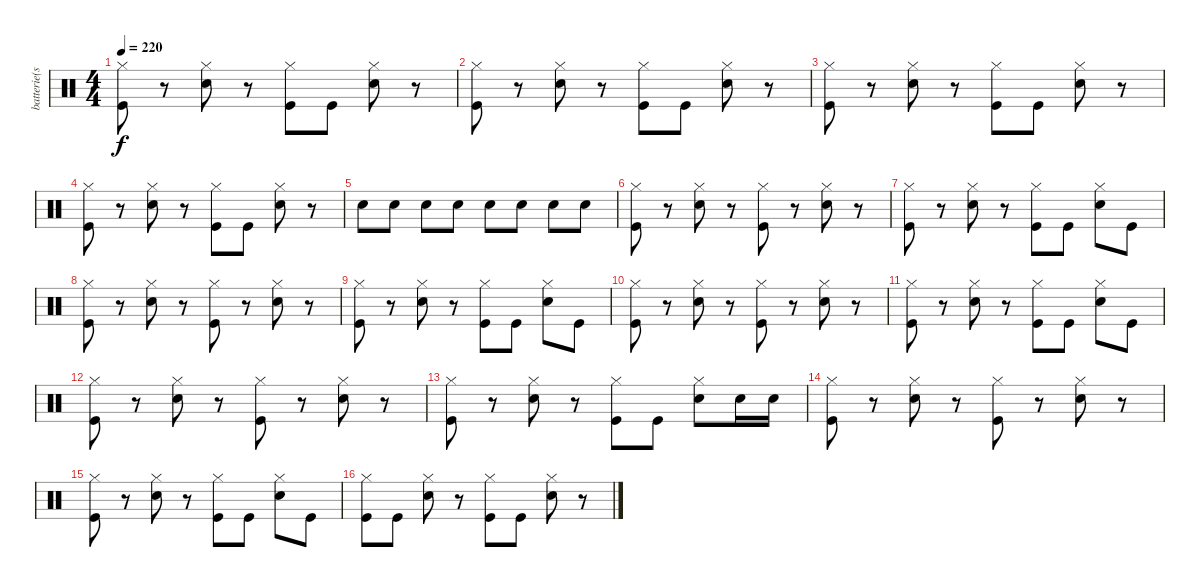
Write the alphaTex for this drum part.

\track ("batterie(scott)" "batterie(s") {instrument percussion}
\staff {score}
\articulation defaults
\ts (4 4)
\tempo 220
\clef neutral
\ks c
("Hi-Hat (closed)" "Kick (hit)").8{dy f} r.8 ("Hi-Hat (closed)" "Snare (hit) 2").8 r.8 ("Hi-Hat (closed)" "Kick (hit)").8 "Kick (hit)".8 ("Hi-Hat (closed)" "Snare (hit) 2").8 r.8 |
("Hi-Hat (closed)" "Kick (hit)").8 r.8 ("Hi-Hat (closed)" "Snare (hit) 2").8 r.8 ("Hi-Hat (closed)" "Kick (hit)").8 "Kick (hit)".8 ("Hi-Hat (closed)" "Snare (hit) 2").8 r.8 |
("Hi-Hat (closed)" "Kick (hit)").8 r.8 ("Hi-Hat (closed)" "Snare (hit) 2").8 r.8 ("Hi-Hat (closed)" "Kick (hit)").8 "Kick (hit)".8 ("Hi-Hat (closed)" "Snare (hit) 2").8 r.8 |
("Hi-Hat (closed)" "Kick (hit)").8 r.8 ("Hi-Hat (closed)" "Snare (hit) 2").8 r.8 ("Hi-Hat (closed)" "Kick (hit)").8 "Kick (hit)".8 ("Hi-Hat (closed)" "Snare (hit) 2").8 r.8 |
"Snare (hit) 2".8 "Snare (hit) 2".8 "Snare (hit) 2".8 "Snare (hit) 2".8 "Snare (hit) 2".8 "Snare (hit) 2".8 "Snare (hit) 2".8 "Snare (hit) 2".8 |
("Hi-Hat (closed)" "Kick (hit)").8 r.8 ("Hi-Hat (closed)" "Snare (hit) 2").8 r.8 ("Hi-Hat (closed)" "Kick (hit)").8 r.8 ("Hi-Hat (closed)" "Snare (hit) 2").8 r.8 |
("Hi-Hat (closed)" "Kick (hit)").8 r.8 ("Hi-Hat (closed)" "Snare (hit) 2").8 r.8 ("Hi-Hat (closed)" "Kick (hit)").8 "Kick (hit)".8 ("Hi-Hat (closed)" "Snare (hit) 2").8 "Kick (hit)".8 |
("Hi-Hat (closed)" "Kick (hit)").8 r.8 ("Hi-Hat (closed)" "Snare (hit) 2").8 r.8 ("Hi-Hat (closed)" "Kick (hit)").8 r.8 ("Hi-Hat (closed)" "Snare (hit) 2").8 r.8 |
("Hi-Hat (closed)" "Kick (hit)").8 r.8 ("Hi-Hat (closed)" "Snare (hit) 2").8 r.8 ("Hi-Hat (closed)" "Kick (hit)").8 "Kick (hit)".8 ("Hi-Hat (closed)" "Snare (hit) 2").8 "Kick (hit)".8 |
("Hi-Hat (closed)" "Kick (hit)").8 r.8 ("Hi-Hat (closed)" "Snare (hit) 2").8 r.8 ("Hi-Hat (closed)" "Kick (hit)").8 r.8 ("Hi-Hat (closed)" "Snare (hit) 2").8 r.8 |
("Hi-Hat (closed)" "Kick (hit)").8 r.8 ("Hi-Hat (closed)" "Snare (hit) 2").8 r.8 ("Hi-Hat (closed)" "Kick (hit)").8 "Kick (hit)".8 ("Hi-Hat (closed)" "Snare (hit) 2").8 "Kick (hit)".8 |
("Hi-Hat (closed)" "Kick (hit)").8 r.8 ("Hi-Hat (closed)" "Snare (hit) 2").8 r.8 ("Hi-Hat (closed)" "Kick (hit)").8 r.8 ("Hi-Hat (closed)" "Snare (hit) 2").8 r.8 |
("Hi-Hat (closed)" "Kick (hit)").8 r.8 ("Hi-Hat (closed)" "Snare (hit) 2").8 r.8 ("Hi-Hat (closed)" "Kick (hit)").8 "Kick (hit)".8 ("Hi-Hat (closed)" "Snare (hit) 2").8 "Snare (hit) 2".16 "Snare (hit) 2".16 |
("Hi-Hat (closed)" "Kick (hit)").8 r.8 ("Hi-Hat (closed)" "Snare (hit) 2").8 r.8 ("Hi-Hat (closed)" "Kick (hit)").8 r.8 ("Hi-Hat (closed)" "Snare (hit) 2").8 r.8 |
("Hi-Hat (closed)" "Kick (hit)").8 r.8 ("Hi-Hat (closed)" "Snare (hit) 2").8 r.8 ("Hi-Hat (closed)" "Kick (hit)").8 "Kick (hit)".8 ("Hi-Hat (closed)" "Snare (hit) 2").8 "Kick (hit)".8 |
("Hi-Hat (closed)" "Kick (hit)").8 "Kick (hit)".8 ("Hi-Hat (closed)" "Snare (hit) 2").8 r.8 ("Hi-Hat (closed)" "Kick (hit)").8 "Kick (hit)".8 ("Hi-Hat (closed)" "Snare (hit) 2").8 r.8
